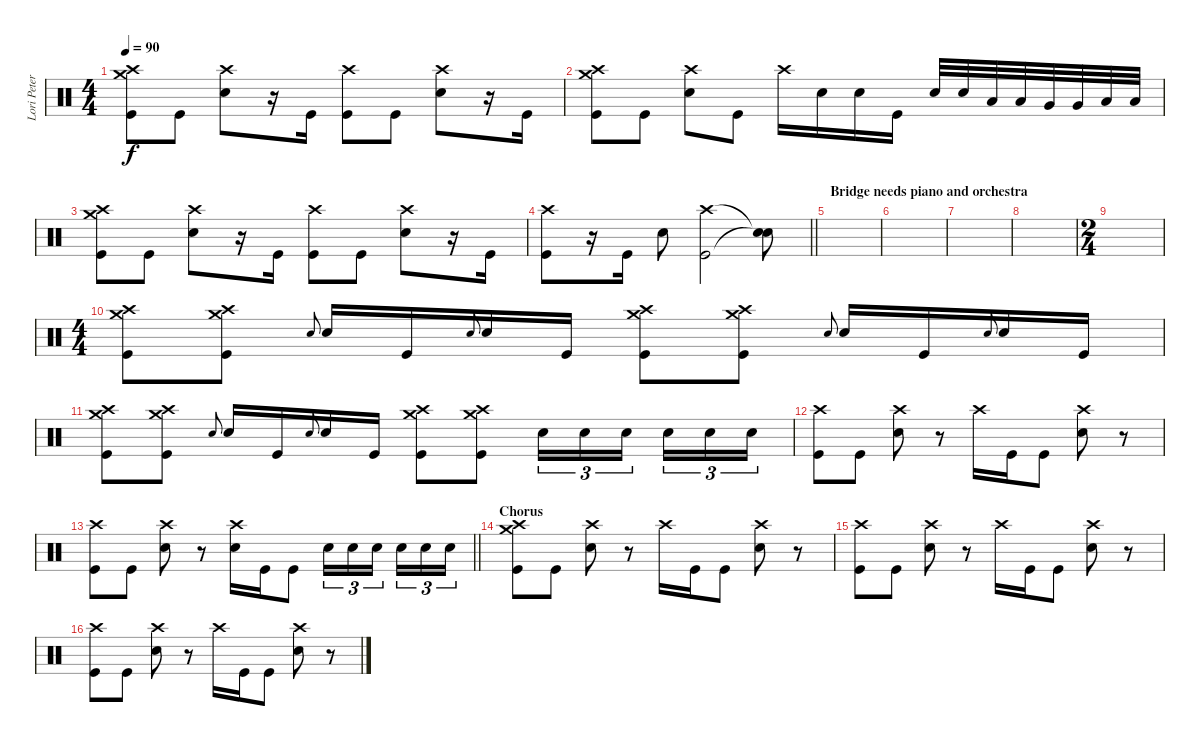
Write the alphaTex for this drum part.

\track ("Lori Peters" "Lori Peter") {instrument percussion}
\staff {score}
\articulation defaults
\ts (4 4)
\tempo 90
\clef neutral
\ks c
("Crash high (hit)" "Crash medium (hit)" "Kick (hit)").8{dy f} "Kick (hit)".8 ("Crash high (hit)" "Electric Snare (hit)").8 r.16 "Kick (hit)".16 ("Crash high (hit)" "Kick (hit)").8 "Kick (hit)".8 ("Crash high (hit)" "Electric Snare (hit)").8 r.16 "Kick (hit)".16 |
("Crash high (hit)" "Crash medium (hit)" "Kick (hit)").8 "Kick (hit)".8 ("Crash high (hit)" "Electric Snare (hit)").8 "Kick (hit)".8 "Crash high (hit)".16 "Electric Snare (hit)".16 "Electric Snare (hit)".16 "Kick (hit)".16 "Electric Snare (hit)".32 "Electric Snare (hit)".32 "Low Tom (hit)".32 "Low Tom (hit)".32 "Very Low Tom (hit)".32 "Very Low Tom (hit)".32 "Low Floor Tom (hit)".32 "Low Floor Tom (hit)".32 |
("Crash high (hit)" "Crash medium (hit)" "Kick (hit)").8 "Kick (hit)".8 ("Crash high (hit)" "Electric Snare (hit)").8 r.16 "Kick (hit)".16 ("Crash high (hit)" "Kick (hit)").8 "Kick (hit)".8 ("Crash high (hit)" "Electric Snare (hit)").8 r.16 "Kick (hit)".16 |
\barLineRight lightlight
("Crash high (hit)" "Kick (hit)").8 r.16 "Kick (hit)".16 "Electric Snare (hit)".8 ("Crash high (hit)" "Kick (hit)").2 ("Snare (hit)"{t} "Snare (hit)"{t}).8 |
\section ("" "Bridge needs piano and orchestra")
|
|
|
|
\ts (2 4)
|
\ts (4 4)
("Crash medium (hit)" "Crash high (hit)" "Kick (hit)").8 ("Crash medium (hit)" "Crash high (hit)" "Kick (hit)").8 "Electric Snare (hit)".8{gr onbeat} "Electric Snare (hit)".16 "Kick (hit)".16 "Electric Snare (hit)".8{gr onbeat} "Electric Snare (hit)".16 "Kick (hit)".16 ("Crash medium (hit)" "Crash high (hit)" "Kick (hit)").8 ("Crash medium (hit)" "Crash high (hit)" "Kick (hit)").8 "Electric Snare (hit)".8{gr onbeat} "Electric Snare (hit)".16 "Kick (hit)".16 "Electric Snare (hit)".8{gr onbeat} "Electric Snare (hit)".16 "Kick (hit)".16 |
("Crash medium (hit)" "Crash high (hit)" "Kick (hit)").8 ("Crash medium (hit)" "Crash high (hit)" "Kick (hit)").8 "Electric Snare (hit)".8{gr onbeat} "Electric Snare (hit)".16 "Kick (hit)".16 "Electric Snare (hit)".8{gr onbeat} "Electric Snare (hit)".16 "Kick (hit)".16 ("Crash medium (hit)" "Crash high (hit)" "Kick (hit)").8 ("Crash medium (hit)" "Crash high (hit)" "Kick (hit)").8 "Electric Snare (hit)".16{tu (3 2)} "Electric Snare (hit)".16{tu (3 2)} "Electric Snare (hit)".16{tu (3 2) beam splitsecondary} "Electric Snare (hit)".16{tu (3 2)} "Electric Snare (hit)".16{tu (3 2)} "Electric Snare (hit)".16{tu (3 2)} |
("Crash high (hit)" "Kick (hit)").8 "Kick (hit)".8 ("Crash high (hit)" "Electric Snare (hit)").8 r.8 "Crash high (hit)".16 "Kick (hit)".16 "Kick (hit)".8 ("Crash high (hit)" "Electric Snare (hit)").8 r.8 |
\barLineRight lightlight
("Crash high (hit)" "Kick (hit)").8 "Kick (hit)".8 ("Crash high (hit)" "Electric Snare (hit)").8 r.8 ("Crash high (hit)" "Electric Snare (hit)").16 "Kick (hit)".16 "Kick (hit)".8 "Electric Snare (hit)".16{tu (3 2)} "Electric Snare (hit)".16{tu (3 2)} "Electric Snare (hit)".16{tu (3 2) beam splitsecondary} "Electric Snare (hit)".16{tu (3 2)} "Electric Snare (hit)".16{tu (3 2)} "Electric Snare (hit)".16{tu (3 2)} |
\section ("" "Chorus")
("Crash high (hit)" "Crash medium (hit)" "Kick (hit)").8 "Kick (hit)".8 ("Crash high (hit)" "Electric Snare (hit)").8 r.8 "Crash high (hit)".16 "Kick (hit)".16 "Kick (hit)".8 ("Crash high (hit)" "Electric Snare (hit)").8 r.8 |
("Crash high (hit)" "Kick (hit)").8 "Kick (hit)".8 ("Crash high (hit)" "Electric Snare (hit)").8 r.8 "Crash high (hit)".16 "Kick (hit)".16 "Kick (hit)".8 ("Crash high (hit)" "Electric Snare (hit)").8 r.8 |
("Crash high (hit)" "Kick (hit)").8 "Kick (hit)".8 ("Crash high (hit)" "Electric Snare (hit)").8 r.8 "Crash high (hit)".16 "Kick (hit)".16 "Kick (hit)".8 ("Crash high (hit)" "Electric Snare (hit)").8 r.8
